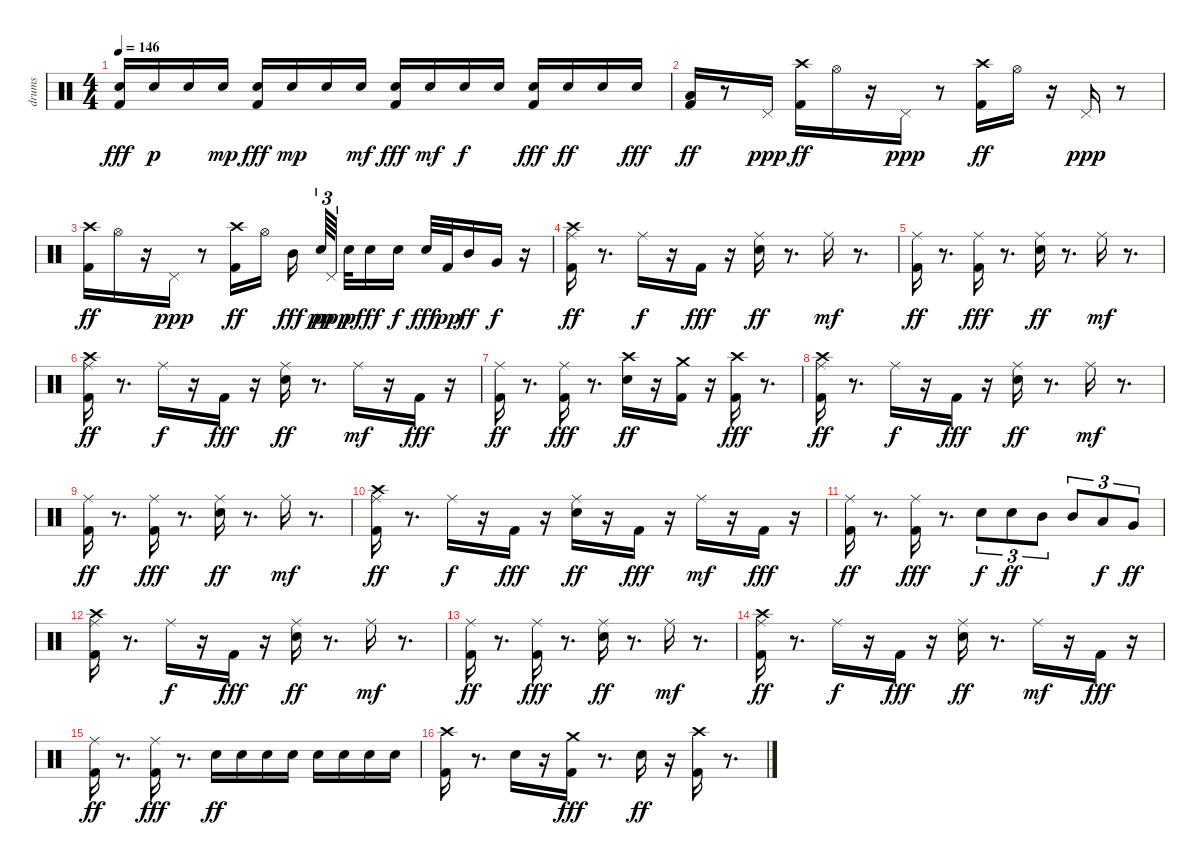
\track ("drums" "drums") {instrument percussion}
\staff {score}
\articulation defaults
\ts (4 4)
\tempo 146
\clef neutral
\ks c
("Snare (hit) 2" "Kick (hit) 2").16{dy fff} "Snare (hit) 2".16{dy p} "Snare (hit) 2".16 "Snare (hit) 2".16{dy mp} ("Snare (hit) 2" "Kick (hit) 2").16{dy fff} "Snare (hit) 2".16{dy mp} "Snare (hit) 2".16 "Snare (hit) 2".16{dy mf} ("Snare (hit) 2" "Kick (hit) 2").16{dy fff} "Snare (hit) 2".16{dy mf} "Snare (hit) 2".16{dy f} "Snare (hit) 2".16 ("Snare (hit) 2" "Kick (hit) 2").16{dy fff} "Snare (hit) 2".16{dy ff} "Snare (hit) 2".16 "Snare (hit) 2".16{dy fff} |
("Low Floor Tom (hit)" "Kick (hit) 2").16{dy ff} r.8 "Pedal Hi-Hat (hit)".16{dy ppp} ("Crash high (hit)" "Kick (hit) 2").16{dy ff} "Hi-Hat (open)".16 r.16 "Pedal Hi-Hat (hit)".16{dy ppp} r.8 ("Crash high (hit)" "Kick (hit) 2").16{dy ff} "Hi-Hat (open)".16 r.16 "Pedal Hi-Hat (hit)".16{dy ppp} r.8 |
("Crash high (hit)" "Kick (hit) 2").16{dy ff} "Hi-Hat (open)".16 r.16 "Pedal Hi-Hat (hit)".16{dy ppp} r.8 ("Crash high (hit)" "Kick (hit) 2").16{dy ff} "Hi-Hat (open)".16 "Mid Tom (hit)".16{dy fff beam splitsecondary} "Snare (hit) 2".64{tu (3 2) dy pp} "Pedal Hi-Hat (hit)".32{tu (3 2) dy ppp beam splitsecondary} "Snare (hit) 2".32{dy p} "Snare (hit) 2".16{dy fff} "Electric Snare (hit)".16{dy f} "Electric Snare (hit)".32{dy fff} "Kick (hit) 2".32{dy pp} "Mid Tom (hit)".16{dy ff} "Very Low Tom (hit)".16{dy f} r.16 |
("Crash high (hit)" "Kick (hit) 2" "Ride (middle)").16{dy ff} r.8{d} "Ride (middle)".16{dy f} r.16 "Kick (hit) 2".16{dy fff} r.16 ("Electric Snare (hit)" "Ride (middle)").16{dy ff} r.8{d} "Ride (middle)".16{dy mf} r.8{d} |
("Kick (hit) 2" "Ride (middle)").16{dy ff} r.8{d} ("Kick (hit) 2" "Ride (middle)").16{dy fff} r.8{d} ("Electric Snare (hit)" "Ride (middle)").16{dy ff} r.8{d} "Ride (middle)".16{dy mf} r.8{d} |
("Crash high (hit)" "Kick (hit) 2" "Ride (middle)").16{dy ff} r.8{d} "Ride (middle)".16{dy f} r.16 "Kick (hit) 2".16{dy fff} r.16 ("Electric Snare (hit)" "Ride (middle)").16{dy ff} r.8{d} "Ride (middle)".16{dy mf} r.16 "Kick (hit) 2".16{dy fff} r.16 |
("Kick (hit) 2" "Ride (middle)").16{dy ff} r.8{d} ("Kick (hit) 2" "Ride (middle)").16{dy fff} r.8{d} ("Crash high (hit)" "Electric Snare (hit)").16{dy ff} r.16 ("Kick (hit) 2" "Crash medium (hit)").16 r.16 ("Crash high (hit)" "Kick (hit) 2").16{dy fff} r.8{d} |
("Crash high (hit)" "Kick (hit) 2" "Ride (middle)").16{dy ff} r.8{d} "Ride (middle)".16{dy f} r.16 "Kick (hit) 2".16{dy fff} r.16 ("Electric Snare (hit)" "Ride (middle)").16{dy ff} r.8{d} "Ride (middle)".16{dy mf} r.8{d} |
("Kick (hit) 2" "Ride (middle)").16{dy ff} r.8{d} ("Kick (hit) 2" "Ride (middle)").16{dy fff} r.8{d} ("Electric Snare (hit)" "Ride (middle)").16{dy ff} r.8{d} "Ride (middle)".16{dy mf} r.8{d} |
("Crash high (hit)" "Kick (hit) 2" "Ride (middle)").16{dy ff} r.8{d} "Ride (middle)".16{dy f} r.16 "Kick (hit) 2".16{dy fff} r.16 ("Electric Snare (hit)" "Ride (middle)").16{dy ff} r.16 "Kick (hit) 2".16{dy fff} r.16 "Ride (middle)".16{dy mf} r.16 "Kick (hit) 2".16{dy fff} r.16 |
("Kick (hit) 2" "Ride (middle)").16{dy ff} r.8{d} ("Kick (hit) 2" "Ride (middle)").16{dy fff} r.8{d} "Electric Snare (hit)".8{tu (3 2) dy f} "Electric Snare (hit)".8{tu (3 2) dy ff} "Mid Tom (hit)".8{tu (3 2)} "Mid Tom (hit)".8{tu (3 2)} "Low Tom (hit)".8{tu (3 2) dy f} "Very Low Tom (hit)".8{tu (3 2) dy ff} |
("Crash high (hit)" "Kick (hit) 2" "Ride (middle)").16 r.8{d} "Ride (middle)".16{dy f} r.16 "Kick (hit) 2".16{dy fff} r.16 ("Electric Snare (hit)" "Ride (middle)").16{dy ff} r.8{d} "Ride (middle)".16{dy mf} r.8{d} |
("Kick (hit) 2" "Ride (middle)").16{dy ff} r.8{d} ("Kick (hit) 2" "Ride (middle)").16{dy fff} r.8{d} ("Electric Snare (hit)" "Ride (middle)").16{dy ff} r.8{d} "Ride (middle)".16{dy mf} r.8{d} |
("Crash high (hit)" "Kick (hit) 2" "Ride (middle)").16{dy ff} r.8{d} "Ride (middle)".16{dy f} r.16 "Kick (hit) 2".16{dy fff} r.16 ("Electric Snare (hit)" "Ride (middle)").16{dy ff} r.8{d} "Ride (middle)".16{dy mf} r.16 "Kick (hit) 2".16{dy fff} r.16 |
("Kick (hit) 2" "Ride (middle)").16{dy ff} r.8{d} ("Kick (hit) 2" "Ride (middle)").16{dy fff} r.8{d} "Electric Snare (hit)".16{dy ff} "Electric Snare (hit)".16 "Electric Snare (hit)".16 "Electric Snare (hit)".16 "Electric Snare (hit)".16 "Electric Snare (hit)".16 "Electric Snare (hit)".16 "Electric Snare (hit)".16 |
("Kick (hit) 2" "Crash high (hit)").16 r.8{d} "Electric Snare (hit)".16 r.16 ("Kick (hit) 2" "Crash medium (hit)").16{dy fff} r.8{d} "Electric Snare (hit)".16{dy ff} r.16 ("Kick (hit) 2" "Crash high (hit)").16 r.8{d}
